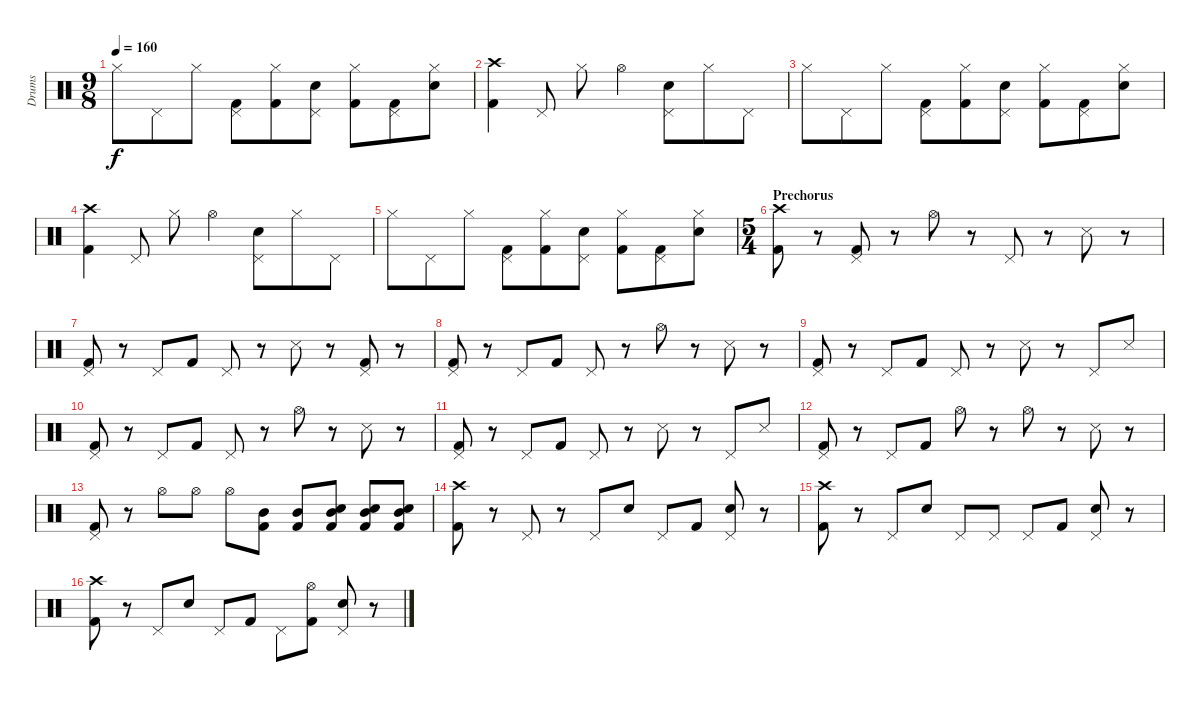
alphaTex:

\track ("Drums" "Drums") {instrument percussion}
\staff {score}
\articulation defaults
\ts (9 8)
\tempo 160
\clef neutral
\ks c "Hi-Hat (closed)".8{dy f} "Pedal Hi-Hat (hit)".8 "Hi-Hat (closed)".8
("Pedal Hi-Hat (hit)" "Kick (hit) 2").8 ("Hi-Hat (closed)" "Kick (hit) 2").8 ("Pedal Hi-Hat (hit)" "Electric Snare (hit)").8 ("Hi-Hat (closed)" "Kick (hit) 2").8 ("Pedal Hi-Hat (hit)" "Kick (hit) 2").8 ("Hi-Hat (closed)" "Electric Snare (hit)").8 |
("Crash high (hit)" "Kick (hit) 2").4 "Pedal Hi-Hat (hit)".8 "Hi-Hat (closed)".8 "Hi-Hat (open)".4 ("Pedal Hi-Hat (hit)" "Electric Snare (hit)").8 "Hi-Hat (closed)".8 "Pedal Hi-Hat (hit)".8 |
"Hi-Hat (closed)".8 "Pedal Hi-Hat (hit)".8 "Hi-Hat (closed)".8 ("Pedal Hi-Hat (hit)" "Kick (hit) 2").8 ("Hi-Hat (closed)" "Kick (hit) 2").8 ("Pedal Hi-Hat (hit)" "Electric Snare (hit)").8 ("Hi-Hat (closed)" "Kick (hit) 2").8 ("Pedal Hi-Hat (hit)" "Kick (hit) 2").8 ("Hi-Hat (closed)" "Electric Snare (hit)").8 |
("Crash high (hit)" "Kick (hit) 2").4 "Pedal Hi-Hat (hit)".8 "Hi-Hat (closed)".8 "Hi-Hat (open)".4 ("Pedal Hi-Hat (hit)" "Electric Snare (hit)").8 "Hi-Hat (closed)".8 "Pedal Hi-Hat (hit)".8 |
"Hi-Hat (closed)".8 "Pedal Hi-Hat (hit)".8 "Hi-Hat (closed)".8 ("Pedal Hi-Hat (hit)" "Kick (hit) 2").8 ("Hi-Hat (closed)" "Kick (hit) 2").8 ("Pedal Hi-Hat (hit)" "Electric Snare (hit)").8 ("Hi-Hat (closed)" "Kick (hit) 2").8 ("Pedal Hi-Hat (hit)" "Kick (hit) 2").8 ("Hi-Hat (closed)" "Electric Snare (hit)").8 |
\ts (5 4)
\section ("" "Prechorus")
("Crash high (hit)" "Kick (hit) 2").8 r.8 ("Pedal Hi-Hat (hit)" "Kick (hit) 2").8 r.8 "Hi-Hat (open)".8 r.8 "Pedal Hi-Hat (hit)".8 r.8 "Snare (side stick) 3".8 r.8 |
("Pedal Hi-Hat (hit)" "Kick (hit) 2").8 r.8 "Pedal Hi-Hat (hit)".8 "Kick (hit) 2".8 "Pedal Hi-Hat (hit)".8 r.8 "Snare (side stick) 3".8 r.8 ("Pedal Hi-Hat (hit)" "Kick (hit) 2").8 r.8 |
("Pedal Hi-Hat (hit)" "Kick (hit) 2").8 r.8 "Pedal Hi-Hat (hit)".8 "Kick (hit) 2".8 "Pedal Hi-Hat (hit)".8 r.8 "Hi-Hat (open)".8 r.8 "Snare (side stick) 3".8 r.8 |
("Pedal Hi-Hat (hit)" "Kick (hit) 2").8 r.8 "Pedal Hi-Hat (hit)".8 "Kick (hit) 2".8 "Pedal Hi-Hat (hit)".8 r.8 "Snare (side stick) 3".8 r.8 "Pedal Hi-Hat (hit)".8 "Snare (side stick) 3".8 |
("Pedal Hi-Hat (hit)" "Kick (hit) 2").8 r.8 "Pedal Hi-Hat (hit)".8 "Kick (hit) 2".8 "Pedal Hi-Hat (hit)".8 r.8 "Hi-Hat (open)".8 r.8 "Snare (side stick) 3".8 r.8 |
("Pedal Hi-Hat (hit)" "Kick (hit) 2").8 r.8 "Pedal Hi-Hat (hit)".8 "Kick (hit) 2".8 "Pedal Hi-Hat (hit)".8 r.8 "Snare (side stick) 3".8 r.8 "Pedal Hi-Hat (hit)".8 "Snare (side stick) 3".8 |
("Pedal Hi-Hat (hit)" "Kick (hit) 2").8 r.8 "Pedal Hi-Hat (hit)".8 "Kick (hit) 2".8 "Hi-Hat (open)".8 r.8 "Hi-Hat (open)".8 r.8 "Snare (side stick) 3".8 r.8 |
("Pedal Hi-Hat (hit)" "Kick (hit) 2").8 r.8 "Hi-Hat (open)".8 "Hi-Hat (open)".8 "Hi-Hat (open)".8 ("Mid Tom (hit)" "Kick (hit) 2").8 ("Mid Tom (hit)" "Kick (hit) 2").8 ("Mid Tom (hit)" "Electric Snare (hit)" "Kick (hit) 2").8 ("Mid Tom (hit)" "Electric Snare (hit)" "Kick (hit) 2").8 ("Mid Tom (hit)" "Electric Snare (hit)" "Kick (hit) 2").8 |
("Crash high (hit)" "Kick (hit) 2").8 r.8 "Pedal Hi-Hat (hit)".8 r.8 "Pedal Hi-Hat (hit)".8 "Electric Snare (hit)".8 "Pedal Hi-Hat (hit)".8 "Kick (hit) 2".8 ("Pedal Hi-Hat (hit)" "Electric Snare (hit)").8 r.8 |
("Crash high (hit)" "Kick (hit) 2").8 r.8 "Pedal Hi-Hat (hit)".8 "Electric Snare (hit)".8 "Pedal Hi-Hat (hit)".8 "Pedal Hi-Hat (hit)".8 "Pedal Hi-Hat (hit)".8 "Kick (hit) 2".8 ("Pedal Hi-Hat (hit)" "Electric Snare (hit)").8 r.8 |
("Crash high (hit)" "Kick (hit) 2").8 r.8 "Pedal Hi-Hat (hit)".8 "Electric Snare (hit)".8 "Pedal Hi-Hat (hit)".8 "Kick (hit) 2".8 "Pedal Hi-Hat (hit)".8 ("Hi-Hat (open)" "Kick (hit) 2").8 ("Pedal Hi-Hat (hit)" "Electric Snare (hit)").8 r.8
